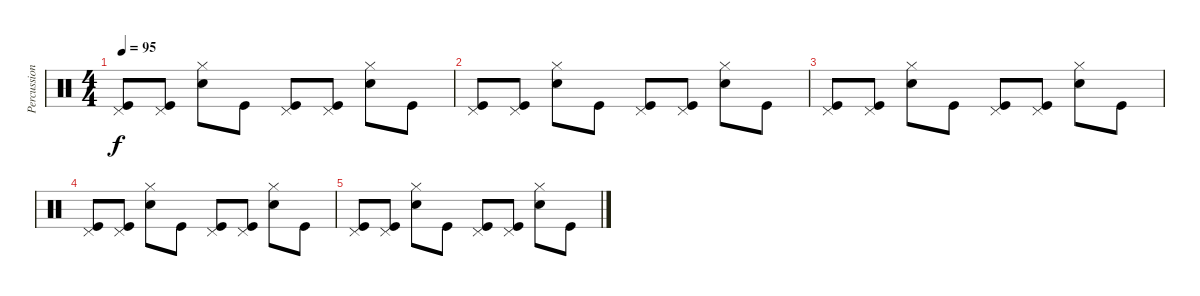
\track ("Percussion" "Percussion") {instrument percussion}
\staff {score}
\articulation defaults
\ts (4 4)
\tempo 95
\clef neutral
\ks c
("Pedal Hi-Hat (hit)" "Kick (hit)").8{dy f} ("Pedal Hi-Hat (hit)" "Kick (hit)").8 ("Hi-Hat (closed)" "Snare (hit) 2").8 "Kick (hit)".8 ("Pedal Hi-Hat (hit)" "Kick (hit)").8 ("Pedal Hi-Hat (hit)" "Kick (hit)").8 ("Hi-Hat (closed)" "Snare (hit) 2").8 "Kick (hit)".8 |
("Pedal Hi-Hat (hit)" "Kick (hit)").8 ("Pedal Hi-Hat (hit)" "Kick (hit)").8 ("Hi-Hat (closed)" "Snare (hit) 2").8 "Kick (hit)".8 ("Pedal Hi-Hat (hit)" "Kick (hit)").8 ("Pedal Hi-Hat (hit)" "Kick (hit)").8 ("Hi-Hat (closed)" "Snare (hit) 2").8 "Kick (hit)".8 |
("Pedal Hi-Hat (hit)" "Kick (hit)").8 ("Pedal Hi-Hat (hit)" "Kick (hit)").8 ("Hi-Hat (closed)" "Snare (hit) 2").8 "Kick (hit)".8 ("Pedal Hi-Hat (hit)" "Kick (hit)").8 ("Pedal Hi-Hat (hit)" "Kick (hit)").8 ("Hi-Hat (closed)" "Snare (hit) 2").8 "Kick (hit)".8 |
("Pedal Hi-Hat (hit)" "Kick (hit)").8 ("Pedal Hi-Hat (hit)" "Kick (hit)").8 ("Hi-Hat (closed)" "Snare (hit) 2").8 "Kick (hit)".8 ("Pedal Hi-Hat (hit)" "Kick (hit)").8 ("Pedal Hi-Hat (hit)" "Kick (hit)").8 ("Hi-Hat (closed)" "Snare (hit) 2").8 "Kick (hit)".8 |
("Pedal Hi-Hat (hit)" "Kick (hit)").8 ("Pedal Hi-Hat (hit)" "Kick (hit)").8 ("Hi-Hat (closed)" "Snare (hit) 2").8 "Kick (hit)".8 ("Pedal Hi-Hat (hit)" "Kick (hit)").8 ("Pedal Hi-Hat (hit)" "Kick (hit)").8 ("Hi-Hat (closed)" "Snare (hit) 2").8 "Kick (hit)".8
